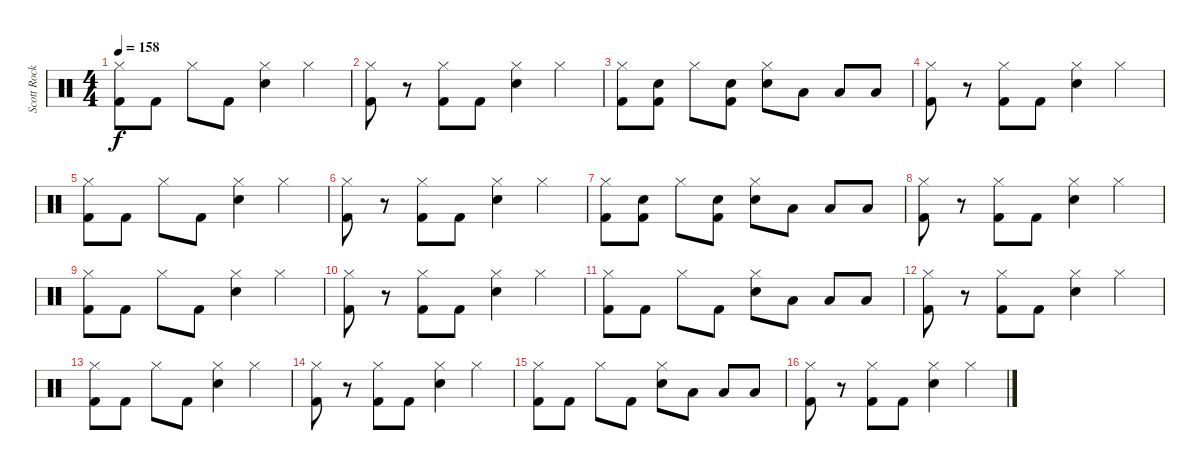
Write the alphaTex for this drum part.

\track ("Scott Rockenfield" "Scott Rock") {instrument percussion}
\staff {score}
\articulation defaults
\ts (4 4)
\tempo 158
\clef neutral
\ks c
("Kick (hit) 2" "Hi-Hat (closed)").8{dy f} "Kick (hit) 2".8 "Hi-Hat (closed)".8 "Kick (hit) 2".8 ("Hi-Hat (closed)" "Electric Snare (hit)").4 "Hi-Hat (closed)".4 |
("Kick (hit) 2" "Hi-Hat (closed)").8 r.8 ("Kick (hit) 2" "Hi-Hat (closed)").8 "Kick (hit) 2".8 ("Hi-Hat (closed)" "Electric Snare (hit)").4 "Hi-Hat (closed)".4 |
("Kick (hit) 2" "Hi-Hat (closed)").8 ("Kick (hit) 2" "Electric Snare (hit)").8 "Hi-Hat (closed)".8 ("Kick (hit) 2" "Electric Snare (hit)").8 ("Hi-Hat (closed)" "Electric Snare (hit)").8 "Low Tom (hit)".8 "Low Tom (hit)".8 "Low Floor Tom (hit)".8 |
("Kick (hit) 2" "Hi-Hat (closed)").8 r.8 ("Kick (hit) 2" "Hi-Hat (closed)").8 "Kick (hit) 2".8 ("Hi-Hat (closed)" "Electric Snare (hit)").4 "Hi-Hat (closed)".4 |
("Kick (hit) 2" "Hi-Hat (closed)").8 "Kick (hit) 2".8 "Hi-Hat (closed)".8 "Kick (hit) 2".8 ("Hi-Hat (closed)" "Electric Snare (hit)").4 "Hi-Hat (closed)".4 |
("Kick (hit) 2" "Hi-Hat (closed)").8 r.8 ("Kick (hit) 2" "Hi-Hat (closed)").8 "Kick (hit) 2".8 ("Hi-Hat (closed)" "Electric Snare (hit)").4 "Hi-Hat (closed)".4 |
("Kick (hit) 2" "Hi-Hat (closed)").8 ("Kick (hit) 2" "Electric Snare (hit)").8 "Hi-Hat (closed)".8 ("Kick (hit) 2" "Electric Snare (hit)").8 ("Hi-Hat (closed)" "Electric Snare (hit)").8 "Low Tom (hit)".8 "Low Tom (hit)".8 "Low Floor Tom (hit)".8 |
("Kick (hit) 2" "Hi-Hat (closed)").8 r.8 ("Kick (hit) 2" "Hi-Hat (closed)").8 "Kick (hit) 2".8 ("Hi-Hat (closed)" "Electric Snare (hit)").4 "Hi-Hat (closed)".4 |
("Kick (hit) 2" "Hi-Hat (closed)").8 "Kick (hit) 2".8 "Hi-Hat (closed)".8 "Kick (hit) 2".8 ("Hi-Hat (closed)" "Electric Snare (hit)").4 "Hi-Hat (closed)".4 |
("Kick (hit) 2" "Hi-Hat (closed)").8 r.8 ("Kick (hit) 2" "Hi-Hat (closed)").8 "Kick (hit) 2".8 ("Hi-Hat (closed)" "Electric Snare (hit)").4 "Hi-Hat (closed)".4 |
("Kick (hit) 2" "Hi-Hat (closed)").8 "Kick (hit) 2".8 "Hi-Hat (closed)".8 "Kick (hit) 2".8 ("Hi-Hat (closed)" "Electric Snare (hit)").8 "Low Tom (hit)".8 "Low Tom (hit)".8 "Low Floor Tom (hit)".8 |
("Kick (hit) 2" "Hi-Hat (closed)").8 r.8 ("Kick (hit) 2" "Hi-Hat (closed)").8 "Kick (hit) 2".8 ("Hi-Hat (closed)" "Electric Snare (hit)").4 "Hi-Hat (closed)".4 |
("Kick (hit) 2" "Hi-Hat (closed)").8 "Kick (hit) 2".8 "Hi-Hat (closed)".8 "Kick (hit) 2".8 ("Hi-Hat (closed)" "Electric Snare (hit)").4 "Hi-Hat (closed)".4 |
("Kick (hit) 2" "Hi-Hat (closed)").8 r.8 ("Kick (hit) 2" "Hi-Hat (closed)").8 "Kick (hit) 2".8 ("Hi-Hat (closed)" "Electric Snare (hit)").4 "Hi-Hat (closed)".4 |
("Kick (hit) 2" "Hi-Hat (closed)").8 "Kick (hit) 2".8 "Hi-Hat (closed)".8 "Kick (hit) 2".8 ("Hi-Hat (closed)" "Electric Snare (hit)").8 "Low Tom (hit)".8 "Low Tom (hit)".8 "Low Floor Tom (hit)".8 |
("Kick (hit) 2" "Hi-Hat (closed)").8 r.8 ("Kick (hit) 2" "Hi-Hat (closed)").8 "Kick (hit) 2".8 ("Hi-Hat (closed)" "Electric Snare (hit)").4 "Hi-Hat (closed)".4
